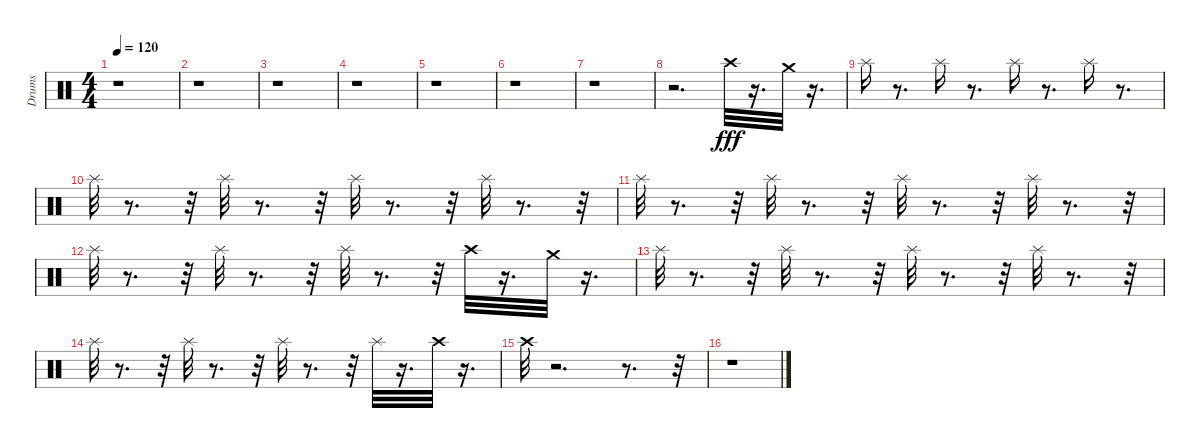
\track ("Drums" "Drums") {instrument percussion}
\staff {score}
\articulation defaults
\ts (4 4)
\tempo 120
\clef neutral
\ks c
r.1{dy fff} |
r.1 |
r.1 |
r.1 |
r.1 |
r.1 |
r.1 |
r.2{d} "Crash high (hit)".32 r.16{d} "Crash medium (hit)".32 r.16{d} |
"Splash (hit)".16 r.8{d} "Splash (hit)".16 r.8{d} "Splash (hit)".16 r.8{d} "Splash (hit)".16 r.8{d} |
"Splash (hit)".32 r.8{d} r.32 "Splash (hit)".32 r.8{d} r.32 "Splash (hit)".32 r.8{d} r.32 "Splash (hit)".32 r.8{d} r.32 |
"Splash (hit)".32 r.8{d} r.32 "Splash (hit)".32 r.8{d} r.32 "Splash (hit)".32 r.8{d} r.32 "Splash (hit)".32 r.8{d} r.32 |
"Splash (hit)".32 r.8{d} r.32 "Splash (hit)".32 r.8{d} r.32 "Splash (hit)".32 r.8{d} r.32 "Crash high (hit)".32 r.16{d} "Crash medium (hit)".32 r.16{d} |
"Splash (hit)".32 r.8{d} r.32 "Splash (hit)".32 r.8{d} r.32 "Splash (hit)".32 r.8{d} r.32 "Splash (hit)".32 r.8{d} r.32 |
"Splash (hit)".32 r.8{d} r.32 "Splash (hit)".32 r.8{d} r.32 "Splash (hit)".32 r.8{d} r.32 "Splash (hit)".32 r.16{d} "Crash high (hit)".32 r.16{d} |
"Crash high (hit)".32 r.2{d} r.8{d} r.32 |
r.1
